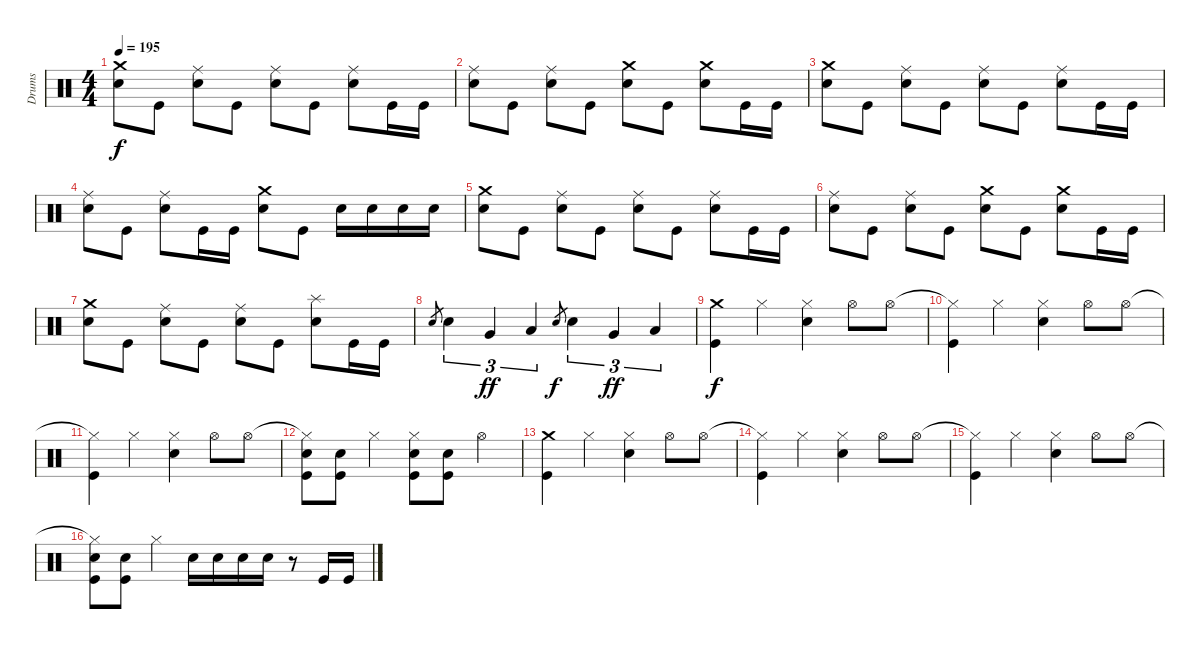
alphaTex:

\track ("Drums" "Drums") {instrument percussion}
\staff {score}
\articulation defaults
\ts (4 4)
\tempo 195
\clef neutral
\ks c
("Crash medium (hit)" "Electric Snare (hit)").8{dy f} "Kick (hit)".8 ("Ride (middle)" "Electric Snare (hit)").8 "Kick (hit)".8 ("Ride (middle)" "Electric Snare (hit)").8 "Kick (hit)".8 ("Ride (middle)" "Electric Snare (hit)").8 "Kick (hit)".16 "Kick (hit)".16 |
("Ride (middle)" "Electric Snare (hit)").8 "Kick (hit)".8 ("Ride (middle)" "Electric Snare (hit)").8 "Kick (hit)".8 ("Crash medium (hit)" "Electric Snare (hit)").8 "Kick (hit)".8 ("Crash medium (hit)" "Electric Snare (hit)").8 "Kick (hit)".16 "Kick (hit)".16 |
("Crash medium (hit)" "Electric Snare (hit)").8 "Kick (hit)".8 ("Ride (middle)" "Electric Snare (hit)").8 "Kick (hit)".8 ("Ride (middle)" "Electric Snare (hit)").8 "Kick (hit)".8 ("Ride (middle)" "Electric Snare (hit)").8 "Kick (hit)".16 "Kick (hit)".16 |
("Ride (middle)" "Electric Snare (hit)").8 "Kick (hit)".8 ("Ride (middle)" "Electric Snare (hit)").8 "Kick (hit)".16 "Kick (hit)".16 ("Crash medium (hit)" "Electric Snare (hit)").8 "Kick (hit)".8 "Electric Snare (hit)".16 "Electric Snare (hit)".16 "Electric Snare (hit)".16 "Electric Snare (hit)".16 |
("Crash medium (hit)" "Electric Snare (hit)").8 "Kick (hit)".8 ("Ride (middle)" "Electric Snare (hit)").8 "Kick (hit)".8 ("Ride (middle)" "Electric Snare (hit)").8 "Kick (hit)".8 ("Ride (middle)" "Electric Snare (hit)").8 "Kick (hit)".16 "Kick (hit)".16 |
("Ride (middle)" "Electric Snare (hit)").8 "Kick (hit)".8 ("Ride (middle)" "Electric Snare (hit)").8 "Kick (hit)".8 ("Crash medium (hit)" "Electric Snare (hit)").8 "Kick (hit)".8 ("Crash medium (hit)" "Electric Snare (hit)").8 "Kick (hit)".16 "Kick (hit)".16 |
("Crash medium (hit)" "Electric Snare (hit)").8 "Kick (hit)".8 ("Ride (middle)" "Electric Snare (hit)").8 "Kick (hit)".8 ("Ride (middle)" "Electric Snare (hit)").8 "Kick (hit)".8 ("Splash (hit)" "Electric Snare (hit)").8 "Kick (hit)".16 "Kick (hit)".16 |
"Electric Snare (hit)".8{gr} "Electric Snare (hit)".4{tu (3 2)} "Very Low Tom (hit)".4{tu (3 2) dy ff} "Low Floor Tom (hit)".4{tu (3 2)} "Electric Snare (hit)".8{gr dy f} "Electric Snare (hit)".4{tu (3 2)} "Very Low Tom (hit)".4{tu (3 2) dy ff} "Low Floor Tom (hit)".4{tu (3 2)} |
("Crash medium (hit)" "Kick (hit)").4{dy f} "Hi-Hat (closed)".4 ("Hi-Hat (closed)" "Electric Snare (hit)").4 "Hi-Hat (open)".8 "Hi-Hat (open)".8 |
("Hi-Hat (closed)"{t} "Kick (hit)").4 "Hi-Hat (closed)".4 ("Hi-Hat (closed)" "Electric Snare (hit)").4 "Hi-Hat (open)".8 "Hi-Hat (open)".8 |
("Hi-Hat (closed)"{t} "Kick (hit)").4 "Hi-Hat (closed)".4 ("Hi-Hat (closed)" "Electric Snare (hit)").4 "Hi-Hat (open)".8 "Hi-Hat (open)".8 |
("Hi-Hat (closed)"{t} "Electric Snare (hit)" "Kick (hit)").8 ("Electric Snare (hit)" "Kick (hit)").8 "Hi-Hat (closed)".4 ("Hi-Hat (closed)" "Electric Snare (hit)" "Kick (hit)").8 ("Electric Snare (hit)" "Kick (hit)").8 "Hi-Hat (open)".4 |
("Crash medium (hit)" "Kick (hit)").4 "Hi-Hat (closed)".4 ("Hi-Hat (closed)" "Electric Snare (hit)").4 "Hi-Hat (open)".8 "Hi-Hat (open)".8 |
("Hi-Hat (closed)"{t} "Kick (hit)").4 "Hi-Hat (closed)".4 ("Hi-Hat (closed)" "Electric Snare (hit)").4 "Hi-Hat (open)".8 "Hi-Hat (open)".8 |
("Hi-Hat (closed)"{t} "Kick (hit)").4 "Hi-Hat (closed)".4 ("Hi-Hat (closed)" "Electric Snare (hit)").4 "Hi-Hat (open)".8 "Hi-Hat (open)".8 |
("Hi-Hat (closed)"{t} "Electric Snare (hit)" "Kick (hit)").8 ("Electric Snare (hit)" "Kick (hit)").8 "Hi-Hat (closed)".4 "Electric Snare (hit)".16 "Electric Snare (hit)".16 "Electric Snare (hit)".16 "Electric Snare (hit)".16 r.8 "Kick (hit)".16 "Kick (hit)".16
